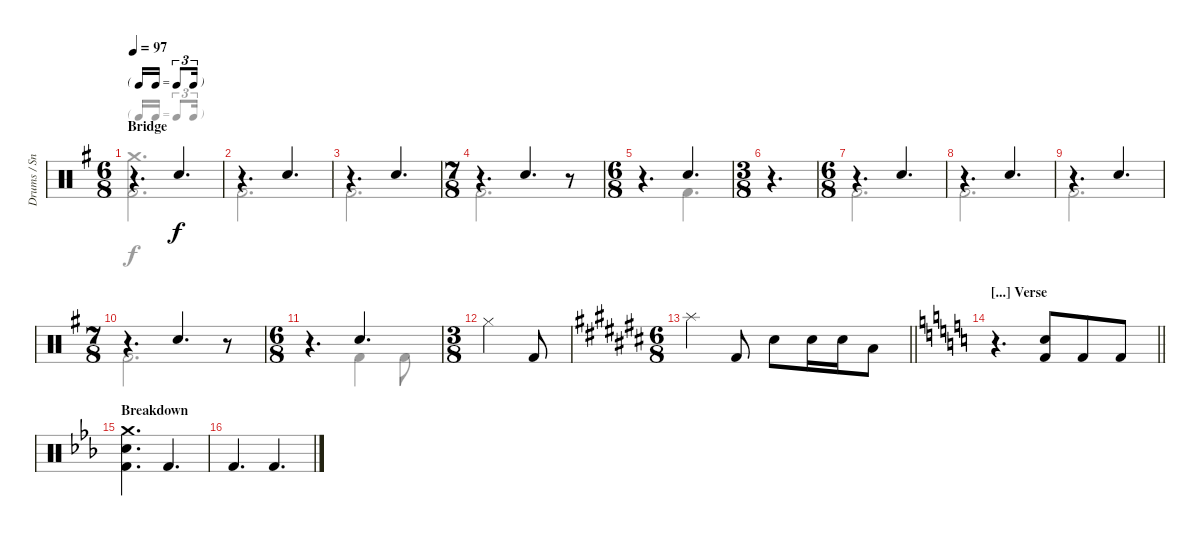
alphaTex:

\track ("Drums / Snaps" "Drums / Sn") {instrument percussion}
\staff {score}
\articulation defaults
\voice
\ts (6 8)
\tf triplet16th
\section ("" "Bridge")
\tempo 97
\clef neutral
\ks eminor
r.4{d dy f} "Hand Clap (hit)".4{d} |
r.4{d} "Hand Clap (hit)".4{d} |
r.4{d} "Hand Clap (hit)".4{d} |
\ts (7 8)
r.4{d} "Hand Clap (hit)".4{d} r.8 |
\ts (6 8)
r.4{d} "Hand Clap (hit)".4{d} |
\ts (3 8)
r.4{d} |
\ts (6 8)
r.4{d} "Hand Clap (hit)".4{d} |
r.4{d} "Hand Clap (hit)".4{d} |
r.4{d} "Hand Clap (hit)".4{d} |
\ts (7 8)
r.4{d} "Hand Clap (hit)".4{d} r.8 |
\ts (6 8)
r.4{d} "Hand Clap (hit)".4{d} |
\ts (3 8)
"Hi-Hat (closed)".4 "Kick (hit) 2".8 |
\ts (6 8)
\barLineRight lightlight
\ks c# "Splash (hit)".4 "Kick (hit) 2".8 "Snare (hit) 2".8 "Snare (hit) 2".16 "Snare (hit) 2".16 "Low Tom (hit)".8
|
\section ("" "[...] Verse")
\barLineRight lightlight
\ks c
r.4{d} ("Snare (hit) 2" "Kick (hit) 2").8 "Kick (hit) 2".8 "Kick (hit) 2".8 |
\section ("" "Breakdown")
\ks cminor
("Crash medium (hit)" "Snare (hit) 2" "Kick (hit) 2").4{d} "Kick (hit) 2".4{d} |
"Kick (hit) 2".4{d} "Kick (hit) 2".4{d}
\voice
\clef neutral
\ottava regular
\simile none
\ks eminor
("Crash medium (hit)" "Kick (hit) 2").2{d dy f} |
"Kick (hit) 2".2{d} |
"Kick (hit) 2".2{d} |
"Kick (hit) 2".2{d} r.8 |
r.4{d} "Kick (hit) 2".4{d} |
r.4{d} |
"Kick (hit) 2".2{d} |
"Kick (hit) 2".2{d} |
"Kick (hit) 2".2{d} |
"Kick (hit) 2".2{d} r.8 |
r.4{d} "Kick (hit) 2".4 "Kick (hit) 2".8 |
|
\barLineRight lightlight
\ks c#
|
\barLineRight lightlight
\ks c
|
\ks cminor
|
